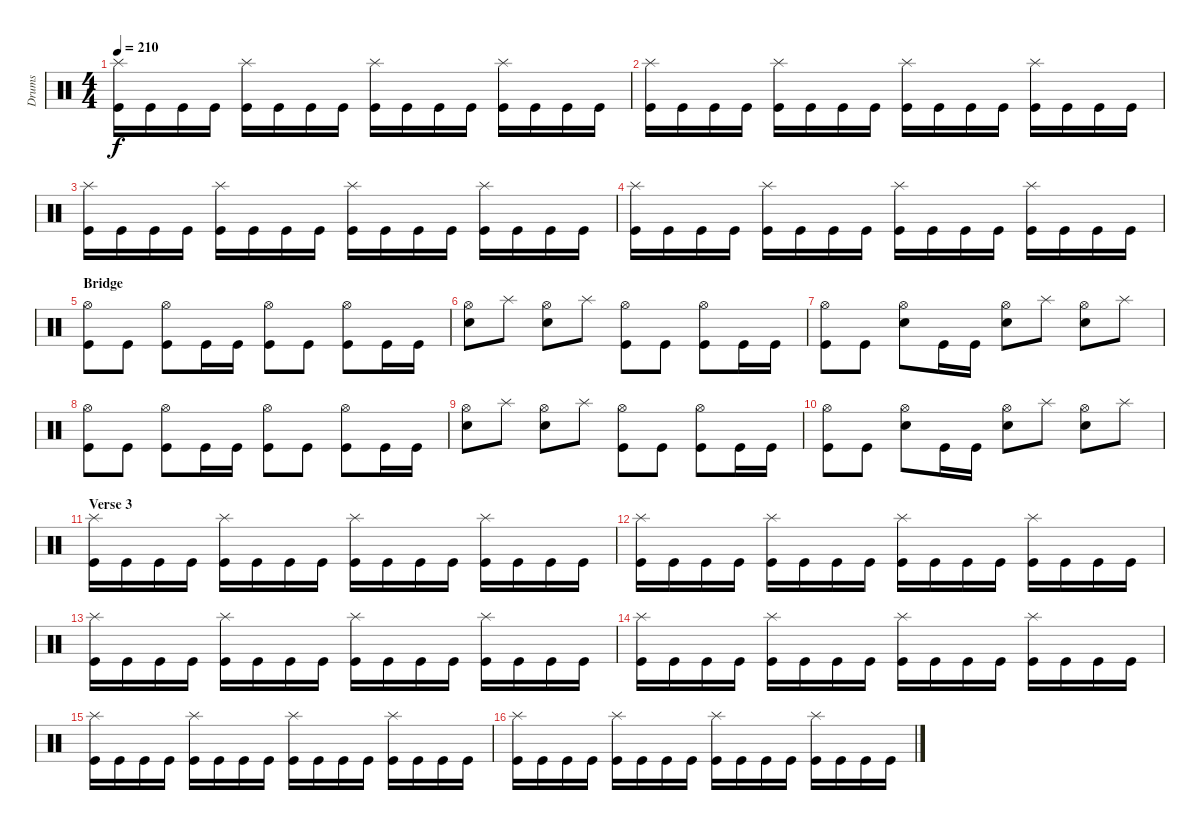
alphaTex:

\track ("Drums" "Drums") {instrument percussion}
\staff {score}
\articulation defaults
\ts (4 4)
\tempo 210
\clef neutral
\ks c
("Splash (hit)" "Kick (hit)").16{dy f} "Kick (hit)".16 "Kick (hit)".16 "Kick (hit)".16 ("Splash (hit)" "Kick (hit)").16 "Kick (hit)".16 "Kick (hit)".16 "Kick (hit)".16 ("Splash (hit)" "Kick (hit)").16 "Kick (hit)".16 "Kick (hit)".16 "Kick (hit)".16 ("Splash (hit)" "Kick (hit)").16 "Kick (hit)".16 "Kick (hit)".16 "Kick (hit)".16 |
("Splash (hit)" "Kick (hit)").16 "Kick (hit)".16 "Kick (hit)".16 "Kick (hit)".16 ("Splash (hit)" "Kick (hit)").16 "Kick (hit)".16 "Kick (hit)".16 "Kick (hit)".16 ("Splash (hit)" "Kick (hit)").16 "Kick (hit)".16 "Kick (hit)".16 "Kick (hit)".16 ("Splash (hit)" "Kick (hit)").16 "Kick (hit)".16 "Kick (hit)".16 "Kick (hit)".16 |
("Splash (hit)" "Kick (hit)").16 "Kick (hit)".16 "Kick (hit)".16 "Kick (hit)".16 ("Splash (hit)" "Kick (hit)").16 "Kick (hit)".16 "Kick (hit)".16 "Kick (hit)".16 ("Splash (hit)" "Kick (hit)").16 "Kick (hit)".16 "Kick (hit)".16 "Kick (hit)".16 ("Splash (hit)" "Kick (hit)").16 "Kick (hit)".16 "Kick (hit)".16 "Kick (hit)".16 |
("Splash (hit)" "Kick (hit)").16 "Kick (hit)".16 "Kick (hit)".16 "Kick (hit)".16 ("Splash (hit)" "Kick (hit)").16 "Kick (hit)".16 "Kick (hit)".16 "Kick (hit)".16 ("Splash (hit)" "Kick (hit)").16 "Kick (hit)".16 "Kick (hit)".16 "Kick (hit)".16 ("Splash (hit)" "Kick (hit)").16 "Kick (hit)".16 "Kick (hit)".16 "Kick (hit)".16 |
\section ("" "Bridge")
("Hi-Hat (open)" "Kick (hit)").8 "Kick (hit)".8 ("Hi-Hat (open)" "Kick (hit)").8 "Kick (hit)".16 "Kick (hit)".16 ("Hi-Hat (open)" "Kick (hit)").8 "Kick (hit)".8 ("Hi-Hat (open)" "Kick (hit)").8 "Kick (hit)".16 "Kick (hit)".16 |
("Hi-Hat (open)" "Electric Snare (hit)").8 "Splash (hit)".8 ("Hi-Hat (open)" "Electric Snare (hit)").8 "Splash (hit)".8 ("Hi-Hat (open)" "Kick (hit)").8 "Kick (hit)".8 ("Hi-Hat (open)" "Kick (hit)").8 "Kick (hit)".16 "Kick (hit)".16 |
("Hi-Hat (open)" "Kick (hit)").8 "Kick (hit)".8 ("Hi-Hat (open)" "Electric Snare (hit)").8 "Kick (hit)".16 "Kick (hit)".16 ("Hi-Hat (open)" "Electric Snare (hit)").8 "Splash (hit)".8 ("Hi-Hat (open)" "Electric Snare (hit)").8 "Splash (hit)".8 |
("Hi-Hat (open)" "Kick (hit)").8 "Kick (hit)".8 ("Hi-Hat (open)" "Kick (hit)").8 "Kick (hit)".16 "Kick (hit)".16 ("Hi-Hat (open)" "Kick (hit)").8 "Kick (hit)".8 ("Hi-Hat (open)" "Kick (hit)").8 "Kick (hit)".16 "Kick (hit)".16 |
("Hi-Hat (open)" "Electric Snare (hit)").8 "Splash (hit)".8 ("Hi-Hat (open)" "Electric Snare (hit)").8 "Splash (hit)".8 ("Hi-Hat (open)" "Kick (hit)").8 "Kick (hit)".8 ("Hi-Hat (open)" "Kick (hit)").8 "Kick (hit)".16 "Kick (hit)".16 |
("Hi-Hat (open)" "Kick (hit)").8 "Kick (hit)".8 ("Hi-Hat (open)" "Electric Snare (hit)").8 "Kick (hit)".16 "Kick (hit)".16 ("Hi-Hat (open)" "Electric Snare (hit)").8 "Splash (hit)".8 ("Hi-Hat (open)" "Electric Snare (hit)").8 "Splash (hit)".8 |
\section ("" "Verse 3")
("Splash (hit)" "Kick (hit)").16 "Kick (hit)".16 "Kick (hit)".16 "Kick (hit)".16 ("Splash (hit)" "Kick (hit)").16 "Kick (hit)".16 "Kick (hit)".16 "Kick (hit)".16 ("Splash (hit)" "Kick (hit)").16 "Kick (hit)".16 "Kick (hit)".16 "Kick (hit)".16 ("Splash (hit)" "Kick (hit)").16 "Kick (hit)".16 "Kick (hit)".16 "Kick (hit)".16 |
("Splash (hit)" "Kick (hit)").16 "Kick (hit)".16 "Kick (hit)".16 "Kick (hit)".16 ("Splash (hit)" "Kick (hit)").16 "Kick (hit)".16 "Kick (hit)".16 "Kick (hit)".16 ("Splash (hit)" "Kick (hit)").16 "Kick (hit)".16 "Kick (hit)".16 "Kick (hit)".16 ("Splash (hit)" "Kick (hit)").16 "Kick (hit)".16 "Kick (hit)".16 "Kick (hit)".16 |
("Splash (hit)" "Kick (hit)").16 "Kick (hit)".16 "Kick (hit)".16 "Kick (hit)".16 ("Splash (hit)" "Kick (hit)").16 "Kick (hit)".16 "Kick (hit)".16 "Kick (hit)".16 ("Splash (hit)" "Kick (hit)").16 "Kick (hit)".16 "Kick (hit)".16 "Kick (hit)".16 ("Splash (hit)" "Kick (hit)").16 "Kick (hit)".16 "Kick (hit)".16 "Kick (hit)".16 |
("Splash (hit)" "Kick (hit)").16 "Kick (hit)".16 "Kick (hit)".16 "Kick (hit)".16 ("Splash (hit)" "Kick (hit)").16 "Kick (hit)".16 "Kick (hit)".16 "Kick (hit)".16 ("Splash (hit)" "Kick (hit)").16 "Kick (hit)".16 "Kick (hit)".16 "Kick (hit)".16 ("Splash (hit)" "Kick (hit)").16 "Kick (hit)".16 "Kick (hit)".16 "Kick (hit)".16 |
("Splash (hit)" "Kick (hit)").16 "Kick (hit)".16 "Kick (hit)".16 "Kick (hit)".16 ("Splash (hit)" "Kick (hit)").16 "Kick (hit)".16 "Kick (hit)".16 "Kick (hit)".16 ("Splash (hit)" "Kick (hit)").16 "Kick (hit)".16 "Kick (hit)".16 "Kick (hit)".16 ("Splash (hit)" "Kick (hit)").16 "Kick (hit)".16 "Kick (hit)".16 "Kick (hit)".16 |
("Splash (hit)" "Kick (hit)").16 "Kick (hit)".16 "Kick (hit)".16 "Kick (hit)".16 ("Splash (hit)" "Kick (hit)").16 "Kick (hit)".16 "Kick (hit)".16 "Kick (hit)".16 ("Splash (hit)" "Kick (hit)").16 "Kick (hit)".16 "Kick (hit)".16 "Kick (hit)".16 ("Splash (hit)" "Kick (hit)").16 "Kick (hit)".16 "Kick (hit)".16 "Kick (hit)".16
